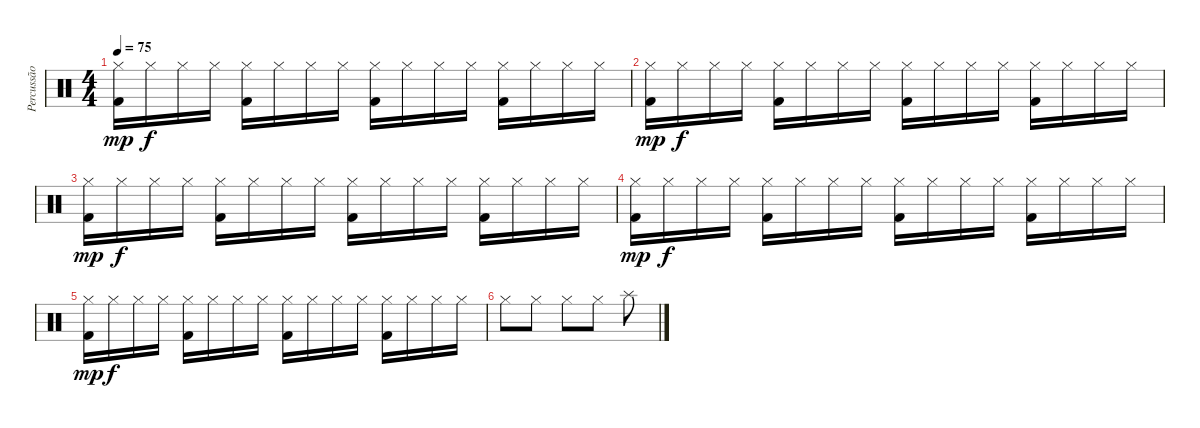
\track ("Percussão" "Percussão") {instrument percussion}
\staff {score}
\articulation defaults
\ts (4 4)
\tempo 75
\clef neutral
\ks c
("Hi-Hat (closed)" "Kick (hit) 2").16{dy mp} "Hi-Hat (closed)".16{dy f} "Hi-Hat (closed)".16 "Hi-Hat (closed)".16 ("Hi-Hat (closed)" "Kick (hit) 2").16 "Hi-Hat (closed)".16 "Hi-Hat (closed)".16 "Hi-Hat (closed)".16 ("Hi-Hat (closed)" "Kick (hit) 2").16 "Hi-Hat (closed)".16 "Hi-Hat (closed)".16 "Hi-Hat (closed)".16 ("Hi-Hat (closed)" "Kick (hit) 2").16 "Hi-Hat (closed)".16 "Hi-Hat (closed)".16 "Hi-Hat (closed)".16 |
("Hi-Hat (closed)" "Kick (hit) 2").16{dy mp} "Hi-Hat (closed)".16{dy f} "Hi-Hat (closed)".16 "Hi-Hat (closed)".16 ("Hi-Hat (closed)" "Kick (hit) 2").16 "Hi-Hat (closed)".16 "Hi-Hat (closed)".16 "Hi-Hat (closed)".16 ("Hi-Hat (closed)" "Kick (hit) 2").16 "Hi-Hat (closed)".16 "Hi-Hat (closed)".16 "Hi-Hat (closed)".16 ("Hi-Hat (closed)" "Kick (hit) 2").16 "Hi-Hat (closed)".16 "Hi-Hat (closed)".16 "Hi-Hat (closed)".16 |
("Hi-Hat (closed)" "Kick (hit) 2").16{dy mp} "Hi-Hat (closed)".16{dy f} "Hi-Hat (closed)".16 "Hi-Hat (closed)".16 ("Hi-Hat (closed)" "Kick (hit) 2").16 "Hi-Hat (closed)".16 "Hi-Hat (closed)".16 "Hi-Hat (closed)".16 ("Hi-Hat (closed)" "Kick (hit) 2").16 "Hi-Hat (closed)".16 "Hi-Hat (closed)".16 "Hi-Hat (closed)".16 ("Hi-Hat (closed)" "Kick (hit) 2").16 "Hi-Hat (closed)".16 "Hi-Hat (closed)".16 "Hi-Hat (closed)".16 |
("Hi-Hat (closed)" "Kick (hit) 2").16{dy mp} "Hi-Hat (closed)".16{dy f} "Hi-Hat (closed)".16 "Hi-Hat (closed)".16 ("Hi-Hat (closed)" "Kick (hit) 2").16 "Hi-Hat (closed)".16 "Hi-Hat (closed)".16 "Hi-Hat (closed)".16 ("Hi-Hat (closed)" "Kick (hit) 2").16 "Hi-Hat (closed)".16 "Hi-Hat (closed)".16 "Hi-Hat (closed)".16 ("Hi-Hat (closed)" "Kick (hit) 2").16 "Hi-Hat (closed)".16 "Hi-Hat (closed)".16 "Hi-Hat (closed)".16 |
("Hi-Hat (closed)" "Kick (hit) 2").16{dy mp} "Hi-Hat (closed)".16{dy f} "Hi-Hat (closed)".16 "Hi-Hat (closed)".16 ("Hi-Hat (closed)" "Kick (hit) 2").16 "Hi-Hat (closed)".16 "Hi-Hat (closed)".16 "Hi-Hat (closed)".16 ("Hi-Hat (closed)" "Kick (hit) 2").16 "Hi-Hat (closed)".16 "Hi-Hat (closed)".16 "Hi-Hat (closed)".16 ("Hi-Hat (closed)" "Kick (hit) 2").16 "Hi-Hat (closed)".16 "Hi-Hat (closed)".16 "Hi-Hat (closed)".16 |
"Hi-Hat (closed)".8 "Hi-Hat (closed)".8 "Hi-Hat (closed)".8 "Hi-Hat (closed)".8 "Splash (hit)".8
